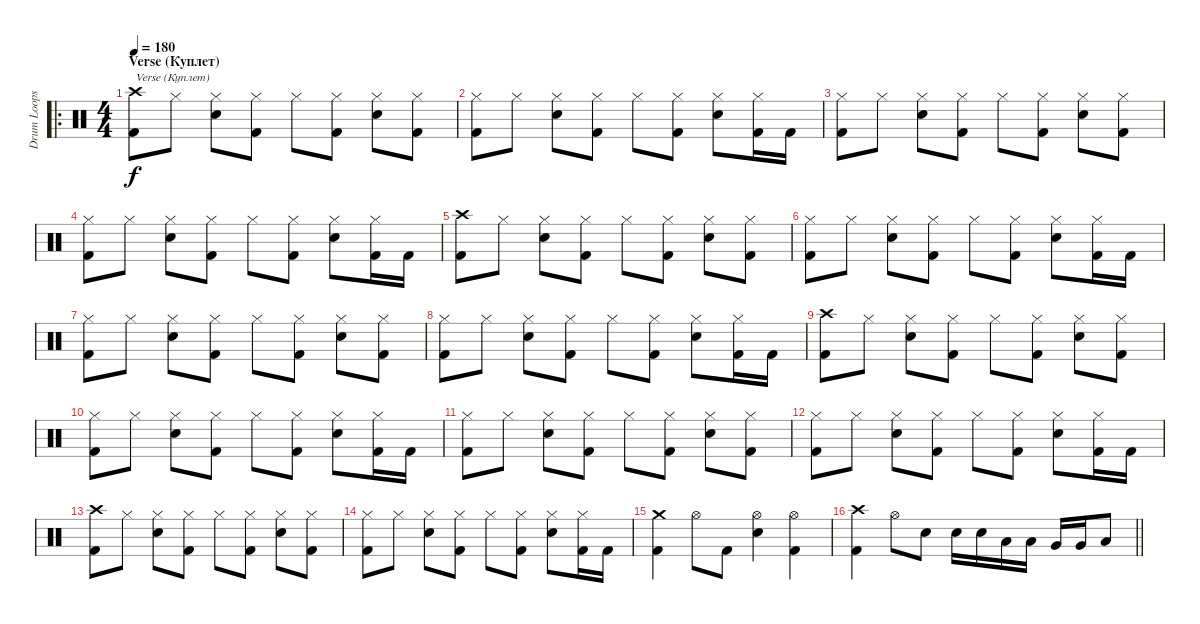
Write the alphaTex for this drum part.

\track ("Drum Loops (Дурачок)" "Drum Loops") {instrument percussion}
\staff {score}
\articulation defaults
\ro
\ts (4 4)
\section ("" "Verse (Куплет)")
\tempo 180
\clef neutral
\ks c
("Kick (hit) 2" "Crash high (hit)").8{txt "Verse (Куплет)" dy f} "Hi-Hat (closed)".8 ("Snare (hit) 2" "Hi-Hat (closed)").8 ("Kick (hit) 2" "Hi-Hat (closed)").8 "Hi-Hat (closed)".8 ("Kick (hit) 2" "Hi-Hat (closed)").8 ("Snare (hit) 2" "Hi-Hat (closed)").8 ("Kick (hit) 2" "Hi-Hat (closed)").8 |
("Kick (hit) 2" "Hi-Hat (closed)").8 "Hi-Hat (closed)".8 ("Snare (hit) 2" "Hi-Hat (closed)").8 ("Kick (hit) 2" "Hi-Hat (closed)").8 "Hi-Hat (closed)".8 ("Kick (hit) 2" "Hi-Hat (closed)").8 ("Snare (hit) 2" "Hi-Hat (closed)").8 ("Kick (hit) 2" "Hi-Hat (closed)").16 "Kick (hit) 2".16 |
("Kick (hit) 2" "Hi-Hat (closed)").8 "Hi-Hat (closed)".8 ("Snare (hit) 2" "Hi-Hat (closed)").8 ("Kick (hit) 2" "Hi-Hat (closed)").8 "Hi-Hat (closed)".8 ("Kick (hit) 2" "Hi-Hat (closed)").8 ("Snare (hit) 2" "Hi-Hat (closed)").8 ("Kick (hit) 2" "Hi-Hat (closed)").8 |
("Kick (hit) 2" "Hi-Hat (closed)").8 "Hi-Hat (closed)".8 ("Snare (hit) 2" "Hi-Hat (closed)").8 ("Kick (hit) 2" "Hi-Hat (closed)").8 "Hi-Hat (closed)".8 ("Kick (hit) 2" "Hi-Hat (closed)").8 ("Snare (hit) 2" "Hi-Hat (closed)").8 ("Kick (hit) 2" "Hi-Hat (closed)").16 "Kick (hit) 2".16 |
("Kick (hit) 2" "Crash high (hit)").8 "Hi-Hat (closed)".8 ("Snare (hit) 2" "Hi-Hat (closed)").8 ("Kick (hit) 2" "Hi-Hat (closed)").8 "Hi-Hat (closed)".8 ("Kick (hit) 2" "Hi-Hat (closed)").8 ("Snare (hit) 2" "Hi-Hat (closed)").8 ("Kick (hit) 2" "Hi-Hat (closed)").8 |
("Kick (hit) 2" "Hi-Hat (closed)").8 "Hi-Hat (closed)".8 ("Snare (hit) 2" "Hi-Hat (closed)").8 ("Kick (hit) 2" "Hi-Hat (closed)").8 "Hi-Hat (closed)".8 ("Kick (hit) 2" "Hi-Hat (closed)").8 ("Snare (hit) 2" "Hi-Hat (closed)").8 ("Kick (hit) 2" "Hi-Hat (closed)").16 "Kick (hit) 2".16 |
("Kick (hit) 2" "Hi-Hat (closed)").8 "Hi-Hat (closed)".8 ("Snare (hit) 2" "Hi-Hat (closed)").8 ("Kick (hit) 2" "Hi-Hat (closed)").8 "Hi-Hat (closed)".8 ("Kick (hit) 2" "Hi-Hat (closed)").8 ("Snare (hit) 2" "Hi-Hat (closed)").8 ("Kick (hit) 2" "Hi-Hat (closed)").8 |
("Kick (hit) 2" "Hi-Hat (closed)").8 "Hi-Hat (closed)".8 ("Snare (hit) 2" "Hi-Hat (closed)").8 ("Kick (hit) 2" "Hi-Hat (closed)").8 "Hi-Hat (closed)".8 ("Kick (hit) 2" "Hi-Hat (closed)").8 ("Snare (hit) 2" "Hi-Hat (closed)").8 ("Kick (hit) 2" "Hi-Hat (closed)").16 "Kick (hit) 2".16 |
("Kick (hit) 2" "Crash high (hit)").8 "Hi-Hat (closed)".8 ("Snare (hit) 2" "Hi-Hat (closed)").8 ("Kick (hit) 2" "Hi-Hat (closed)").8 "Hi-Hat (closed)".8 ("Kick (hit) 2" "Hi-Hat (closed)").8 ("Snare (hit) 2" "Hi-Hat (closed)").8 ("Kick (hit) 2" "Hi-Hat (closed)").8 |
("Kick (hit) 2" "Hi-Hat (closed)").8 "Hi-Hat (closed)".8 ("Snare (hit) 2" "Hi-Hat (closed)").8 ("Kick (hit) 2" "Hi-Hat (closed)").8 "Hi-Hat (closed)".8 ("Kick (hit) 2" "Hi-Hat (closed)").8 ("Snare (hit) 2" "Hi-Hat (closed)").8 ("Kick (hit) 2" "Hi-Hat (closed)").16 "Kick (hit) 2".16 |
("Kick (hit) 2" "Hi-Hat (closed)").8 "Hi-Hat (closed)".8 ("Snare (hit) 2" "Hi-Hat (closed)").8 ("Kick (hit) 2" "Hi-Hat (closed)").8 "Hi-Hat (closed)".8 ("Kick (hit) 2" "Hi-Hat (closed)").8 ("Snare (hit) 2" "Hi-Hat (closed)").8 ("Kick (hit) 2" "Hi-Hat (closed)").8 |
("Kick (hit) 2" "Hi-Hat (closed)").8 "Hi-Hat (closed)".8 ("Snare (hit) 2" "Hi-Hat (closed)").8 ("Kick (hit) 2" "Hi-Hat (closed)").8 "Hi-Hat (closed)".8 ("Kick (hit) 2" "Hi-Hat (closed)").8 ("Snare (hit) 2" "Hi-Hat (closed)").8 ("Kick (hit) 2" "Hi-Hat (closed)").16 "Kick (hit) 2".16 |
("Kick (hit) 2" "Crash high (hit)").8 "Hi-Hat (closed)".8 ("Snare (hit) 2" "Hi-Hat (closed)").8 ("Kick (hit) 2" "Hi-Hat (closed)").8 "Hi-Hat (closed)".8 ("Kick (hit) 2" "Hi-Hat (closed)").8 ("Snare (hit) 2" "Hi-Hat (closed)").8 ("Kick (hit) 2" "Hi-Hat (closed)").8 |
("Kick (hit) 2" "Hi-Hat (closed)").8 "Hi-Hat (closed)".8 ("Snare (hit) 2" "Hi-Hat (closed)").8 ("Kick (hit) 2" "Hi-Hat (closed)").8 "Hi-Hat (closed)".8 ("Kick (hit) 2" "Hi-Hat (closed)").8 ("Snare (hit) 2" "Hi-Hat (closed)").8 ("Kick (hit) 2" "Hi-Hat (closed)").16 "Kick (hit) 2".16 |
("Kick (hit) 2" "Crash medium (hit)").4 "Hi-Hat (open)".8 "Kick (hit) 2".8 ("Snare (hit) 2" "Hi-Hat (open)").4 ("Kick (hit) 2" "Hi-Hat (open)").4 |
\barLineRight lightlight
("Kick (hit) 2" "Crash high (hit)").4 "Hi-Hat (open)".8 "Snare (hit) 2".8 "Snare (hit) 2".16 "Snare (hit) 2".16 "Low Tom (hit)".16 "Low Tom (hit)".16 "Very Low Tom (hit)".16 "Very Low Tom (hit)".16 "Low Floor Tom (hit)".8
